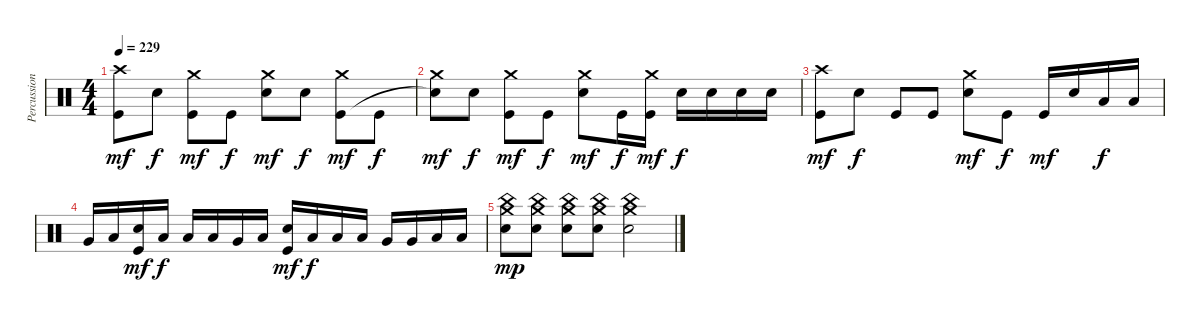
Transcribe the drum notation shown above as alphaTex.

\track ("Percussion" "Percussion") {instrument percussion}
\staff {score}
\articulation defaults
\ts (4 4)
\tempo 229
\clef neutral
\ks c
("Crash high (hit)" "Kick (hit)").8{dy mf} "Electric Snare (hit)".8{dy f} ("Crash medium (hit)" "Kick (hit)").8{dy mf} "Kick (hit)".8{dy f} ("Crash medium (hit)" "Electric Snare (hit)").8{dy mf} "Electric Snare (hit)".8{dy f} ("Crash medium (hit)" "Kick (hit)").8{dy mf} "Kick (hit)".8{dy f} |
("Crash medium (hit)" "Snare (hit)"{t}).8{dy mf} "Electric Snare (hit)".8{dy f} ("Crash medium (hit)" "Kick (hit)").8{dy mf} "Kick (hit)".8{dy f} ("Crash medium (hit)" "Electric Snare (hit)").8{dy mf} "Kick (hit)".16{dy f} ("Crash medium (hit)" "Kick (hit)").16{dy mf} "Electric Snare (hit)".16{dy f} "Electric Snare (hit)".16 "Electric Snare (hit)".16 "Electric Snare (hit)".16 |
("Crash high (hit)" "Kick (hit)").8{dy mf} "Electric Snare (hit)".8{dy f} "Kick (hit)".8 "Kick (hit)".8 ("Crash medium (hit)" "Electric Snare (hit)").8{dy mf} "Kick (hit)".8{dy f} "Kick (hit)".16{dy mf} "Electric Snare (hit)".16 "Low Tom (hit)".16{dy f} "Low Tom (hit)".16 |
"Very Low Tom (hit)".16 "Low Floor Tom (hit)".16 ("Electric Snare (hit)" "Kick (hit)").16{dy mf} "Low Tom (hit)".16{dy f} "Low Tom (hit)".16 "Low Tom (hit)".16 "Very Low Tom (hit)".16 "Low Floor Tom (hit)".16 ("Electric Snare (hit)" "Kick (hit)").16{dy mf} "Low Tom (hit)".16{dy f} "Low Tom (hit)".16 "Low Tom (hit)".16 "Very Low Tom (hit)".16 "Very Low Tom (hit)".16 "Low Floor Tom (hit)".16 "Low Floor Tom (hit)".16 |
("China (hit)" "Crash medium (hit)" "Electric Snare (hit)").8{dy mp} ("China (hit)" "Crash medium (hit)" "Electric Snare (hit)").8 ("China (hit)" "Crash medium (hit)" "Electric Snare (hit)").8 ("China (hit)" "Crash medium (hit)" "Electric Snare (hit)").8 ("China (hit)" "Crash medium (hit)" "Electric Snare (hit)").2
